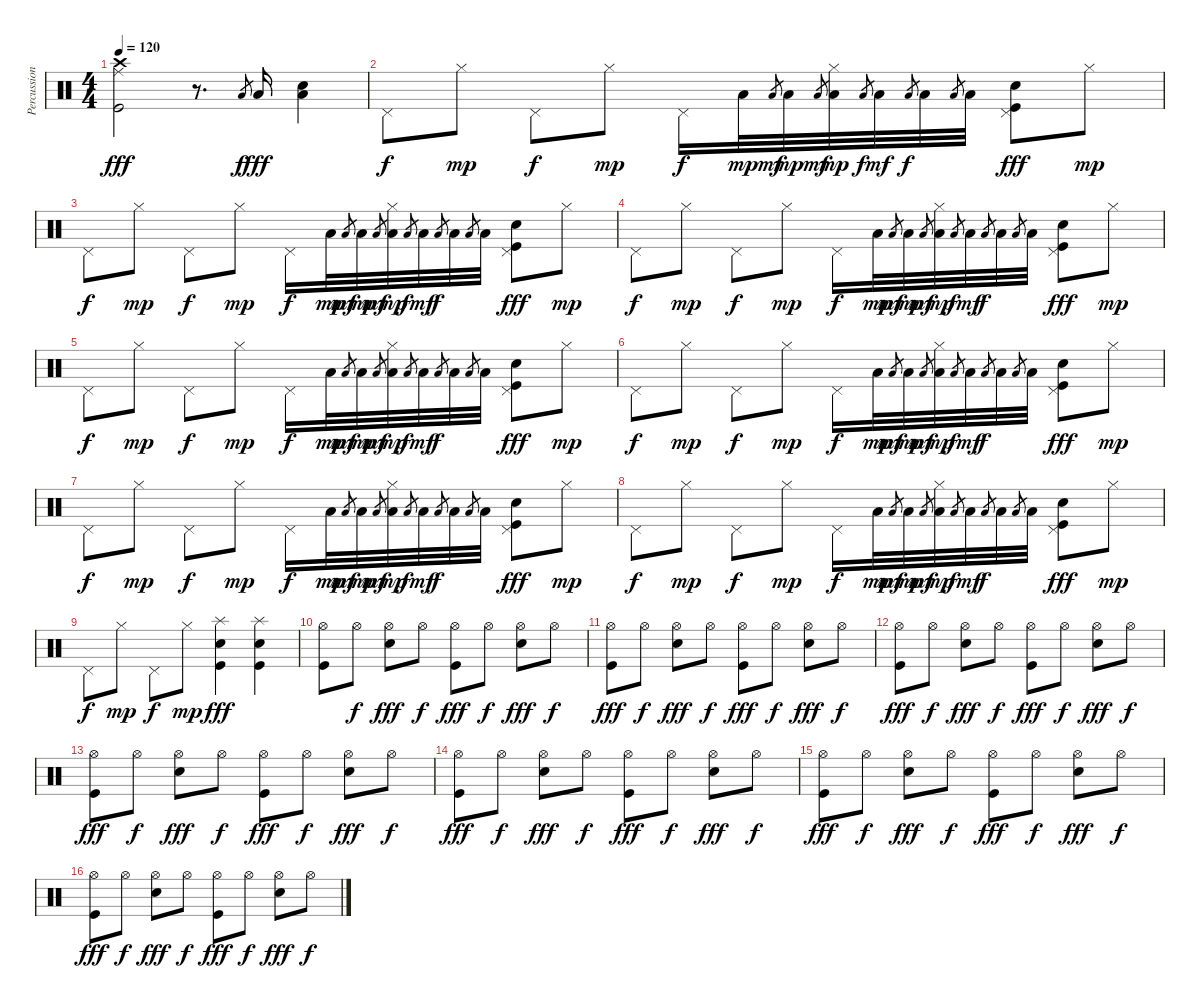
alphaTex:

\track ("Percussion" "Percussion") {instrument percussion}
\staff {score}
\articulation defaults
\ts (4 4)
\tempo 120
\clef neutral
\ks c
("Crash high (hit)" "Ride (middle)" "Kick (hit)").2{dy fff} r.8{d} "Low Tom (hit)".8{gr dy f} "Low Tom (hit)".16{dy fff} ("Snare (hit) 2" "Low Tom (hit)").4 |
"Pedal Hi-Hat (hit)".8{dy f} "Hi-Hat (closed)".8{dy mp} "Pedal Hi-Hat (hit)".8{dy f} "Hi-Hat (closed)".8{dy mp} "Pedal Hi-Hat (hit)".16{dy f} "Low Tom (hit)".32{dy mp} "Low Tom (hit)".8{gr dy mf} "Low Tom (hit)".32{dy mp} "Low Tom (hit)".8{gr dy mf} ("Hi-Hat (closed)" "Low Tom (hit)").32{dy mp} "Low Tom (hit)".8{gr dy f} "Low Tom (hit)".32{dy mf} "Low Tom (hit)".8{gr dy f} "Low Tom (hit)".32 "Low Tom (hit)".8{gr} "Low Tom (hit)".32 ("Pedal Hi-Hat (hit)" "Snare (hit) 2" "Kick (hit)").8{dy fff} "Hi-Hat (closed)".8{dy mp} |
"Pedal Hi-Hat (hit)".8{dy f} "Hi-Hat (closed)".8{dy mp} "Pedal Hi-Hat (hit)".8{dy f} "Hi-Hat (closed)".8{dy mp} "Pedal Hi-Hat (hit)".16{dy f} "Low Tom (hit)".32{dy mp} "Low Tom (hit)".8{gr dy mf} "Low Tom (hit)".32{dy mp} "Low Tom (hit)".8{gr dy mf} ("Hi-Hat (closed)" "Low Tom (hit)").32{dy mp} "Low Tom (hit)".8{gr dy f} "Low Tom (hit)".32{dy mf} "Low Tom (hit)".8{gr dy f} "Low Tom (hit)".32 "Low Tom (hit)".8{gr} "Low Tom (hit)".32 ("Pedal Hi-Hat (hit)" "Snare (hit) 2" "Kick (hit)").8{dy fff} "Hi-Hat (closed)".8{dy mp} |
"Pedal Hi-Hat (hit)".8{dy f} "Hi-Hat (closed)".8{dy mp} "Pedal Hi-Hat (hit)".8{dy f} "Hi-Hat (closed)".8{dy mp} "Pedal Hi-Hat (hit)".16{dy f} "Low Tom (hit)".32{dy mp} "Low Tom (hit)".8{gr dy mf} "Low Tom (hit)".32{dy mp} "Low Tom (hit)".8{gr dy mf} ("Hi-Hat (closed)" "Low Tom (hit)").32{dy mp} "Low Tom (hit)".8{gr dy f} "Low Tom (hit)".32{dy mf} "Low Tom (hit)".8{gr dy f} "Low Tom (hit)".32 "Low Tom (hit)".8{gr} "Low Tom (hit)".32 ("Pedal Hi-Hat (hit)" "Snare (hit) 2" "Kick (hit)").8{dy fff} "Hi-Hat (closed)".8{dy mp} |
"Pedal Hi-Hat (hit)".8{dy f} "Hi-Hat (closed)".8{dy mp} "Pedal Hi-Hat (hit)".8{dy f} "Hi-Hat (closed)".8{dy mp} "Pedal Hi-Hat (hit)".16{dy f} "Low Tom (hit)".32{dy mp} "Low Tom (hit)".8{gr dy mf} "Low Tom (hit)".32{dy mp} "Low Tom (hit)".8{gr dy mf} ("Hi-Hat (closed)" "Low Tom (hit)").32{dy mp} "Low Tom (hit)".8{gr dy f} "Low Tom (hit)".32{dy mf} "Low Tom (hit)".8{gr dy f} "Low Tom (hit)".32 "Low Tom (hit)".8{gr} "Low Tom (hit)".32 ("Pedal Hi-Hat (hit)" "Snare (hit) 2" "Kick (hit)").8{dy fff} "Hi-Hat (closed)".8{dy mp} |
"Pedal Hi-Hat (hit)".8{dy f} "Hi-Hat (closed)".8{dy mp} "Pedal Hi-Hat (hit)".8{dy f} "Hi-Hat (closed)".8{dy mp} "Pedal Hi-Hat (hit)".16{dy f} "Low Tom (hit)".32{dy mp} "Low Tom (hit)".8{gr dy mf} "Low Tom (hit)".32{dy mp} "Low Tom (hit)".8{gr dy mf} ("Hi-Hat (closed)" "Low Tom (hit)").32{dy mp} "Low Tom (hit)".8{gr dy f} "Low Tom (hit)".32{dy mf} "Low Tom (hit)".8{gr dy f} "Low Tom (hit)".32 "Low Tom (hit)".8{gr} "Low Tom (hit)".32 ("Pedal Hi-Hat (hit)" "Snare (hit) 2" "Kick (hit)").8{dy fff} "Hi-Hat (closed)".8{dy mp} |
"Pedal Hi-Hat (hit)".8{dy f} "Hi-Hat (closed)".8{dy mp} "Pedal Hi-Hat (hit)".8{dy f} "Hi-Hat (closed)".8{dy mp} "Pedal Hi-Hat (hit)".16{dy f} "Low Tom (hit)".32{dy mp} "Low Tom (hit)".8{gr dy mf} "Low Tom (hit)".32{dy mp} "Low Tom (hit)".8{gr dy mf} ("Hi-Hat (closed)" "Low Tom (hit)").32{dy mp} "Low Tom (hit)".8{gr dy f} "Low Tom (hit)".32{dy mf} "Low Tom (hit)".8{gr dy f} "Low Tom (hit)".32 "Low Tom (hit)".8{gr} "Low Tom (hit)".32 ("Pedal Hi-Hat (hit)" "Snare (hit) 2" "Kick (hit)").8{dy fff} "Hi-Hat (closed)".8{dy mp} |
"Pedal Hi-Hat (hit)".8{dy f} "Hi-Hat (closed)".8{dy mp} "Pedal Hi-Hat (hit)".8{dy f} "Hi-Hat (closed)".8{dy mp} "Pedal Hi-Hat (hit)".16{dy f} "Low Tom (hit)".32{dy mp} "Low Tom (hit)".8{gr dy mf} "Low Tom (hit)".32{dy mp} "Low Tom (hit)".8{gr dy mf} ("Hi-Hat (closed)" "Low Tom (hit)").32{dy mp} "Low Tom (hit)".8{gr dy f} "Low Tom (hit)".32{dy mf} "Low Tom (hit)".8{gr dy f} "Low Tom (hit)".32 "Low Tom (hit)".8{gr} "Low Tom (hit)".32 ("Pedal Hi-Hat (hit)" "Snare (hit) 2" "Kick (hit)").8{dy fff} "Hi-Hat (closed)".8{dy mp} |
"Pedal Hi-Hat (hit)".8{dy f} "Hi-Hat (closed)".8{dy mp} "Pedal Hi-Hat (hit)".8{dy f} "Hi-Hat (closed)".8{dy mp} ("Splash (hit)" "Snare (hit) 2" "Kick (hit)").4{dy fff} ("Splash (hit)" "Snare (hit) 2" "Kick (hit)").4 |
("Hi-Hat (open)" "Kick (hit)").8 "Hi-Hat (open)".8{dy f} ("Hi-Hat (open)" "Snare (hit) 2").8{dy fff} "Hi-Hat (open)".8{dy f} ("Hi-Hat (open)" "Kick (hit)").8{dy fff} "Hi-Hat (open)".8{dy f} ("Hi-Hat (open)" "Snare (hit) 2").8{dy fff} "Hi-Hat (open)".8{dy f} |
("Hi-Hat (open)" "Kick (hit)").8{dy fff} "Hi-Hat (open)".8{dy f} ("Hi-Hat (open)" "Snare (hit) 2").8{dy fff} "Hi-Hat (open)".8{dy f} ("Hi-Hat (open)" "Kick (hit)").8{dy fff} "Hi-Hat (open)".8{dy f} ("Hi-Hat (open)" "Snare (hit) 2").8{dy fff} "Hi-Hat (open)".8{dy f} |
("Hi-Hat (open)" "Kick (hit)").8{dy fff} "Hi-Hat (open)".8{dy f} ("Hi-Hat (open)" "Snare (hit) 2").8{dy fff} "Hi-Hat (open)".8{dy f} ("Hi-Hat (open)" "Kick (hit)").8{dy fff} "Hi-Hat (open)".8{dy f} ("Hi-Hat (open)" "Snare (hit) 2").8{dy fff} "Hi-Hat (open)".8{dy f} |
("Hi-Hat (open)" "Kick (hit)").8{dy fff} "Hi-Hat (open)".8{dy f} ("Hi-Hat (open)" "Snare (hit) 2").8{dy fff} "Hi-Hat (open)".8{dy f} ("Hi-Hat (open)" "Kick (hit)").8{dy fff} "Hi-Hat (open)".8{dy f} ("Hi-Hat (open)" "Snare (hit) 2").8{dy fff} "Hi-Hat (open)".8{dy f} |
("Hi-Hat (open)" "Kick (hit)").8{dy fff} "Hi-Hat (open)".8{dy f} ("Hi-Hat (open)" "Snare (hit) 2").8{dy fff} "Hi-Hat (open)".8{dy f} ("Hi-Hat (open)" "Kick (hit)").8{dy fff} "Hi-Hat (open)".8{dy f} ("Hi-Hat (open)" "Snare (hit) 2").8{dy fff} "Hi-Hat (open)".8{dy f} |
("Hi-Hat (open)" "Kick (hit)").8{dy fff} "Hi-Hat (open)".8{dy f} ("Hi-Hat (open)" "Snare (hit) 2").8{dy fff} "Hi-Hat (open)".8{dy f} ("Hi-Hat (open)" "Kick (hit)").8{dy fff} "Hi-Hat (open)".8{dy f} ("Hi-Hat (open)" "Snare (hit) 2").8{dy fff} "Hi-Hat (open)".8{dy f} |
("Hi-Hat (open)" "Kick (hit)").8{dy fff} "Hi-Hat (open)".8{dy f} ("Hi-Hat (open)" "Snare (hit) 2").8{dy fff} "Hi-Hat (open)".8{dy f} ("Hi-Hat (open)" "Kick (hit)").8{dy fff} "Hi-Hat (open)".8{dy f} ("Hi-Hat (open)" "Snare (hit) 2").8{dy fff} "Hi-Hat (open)".8{dy f}
